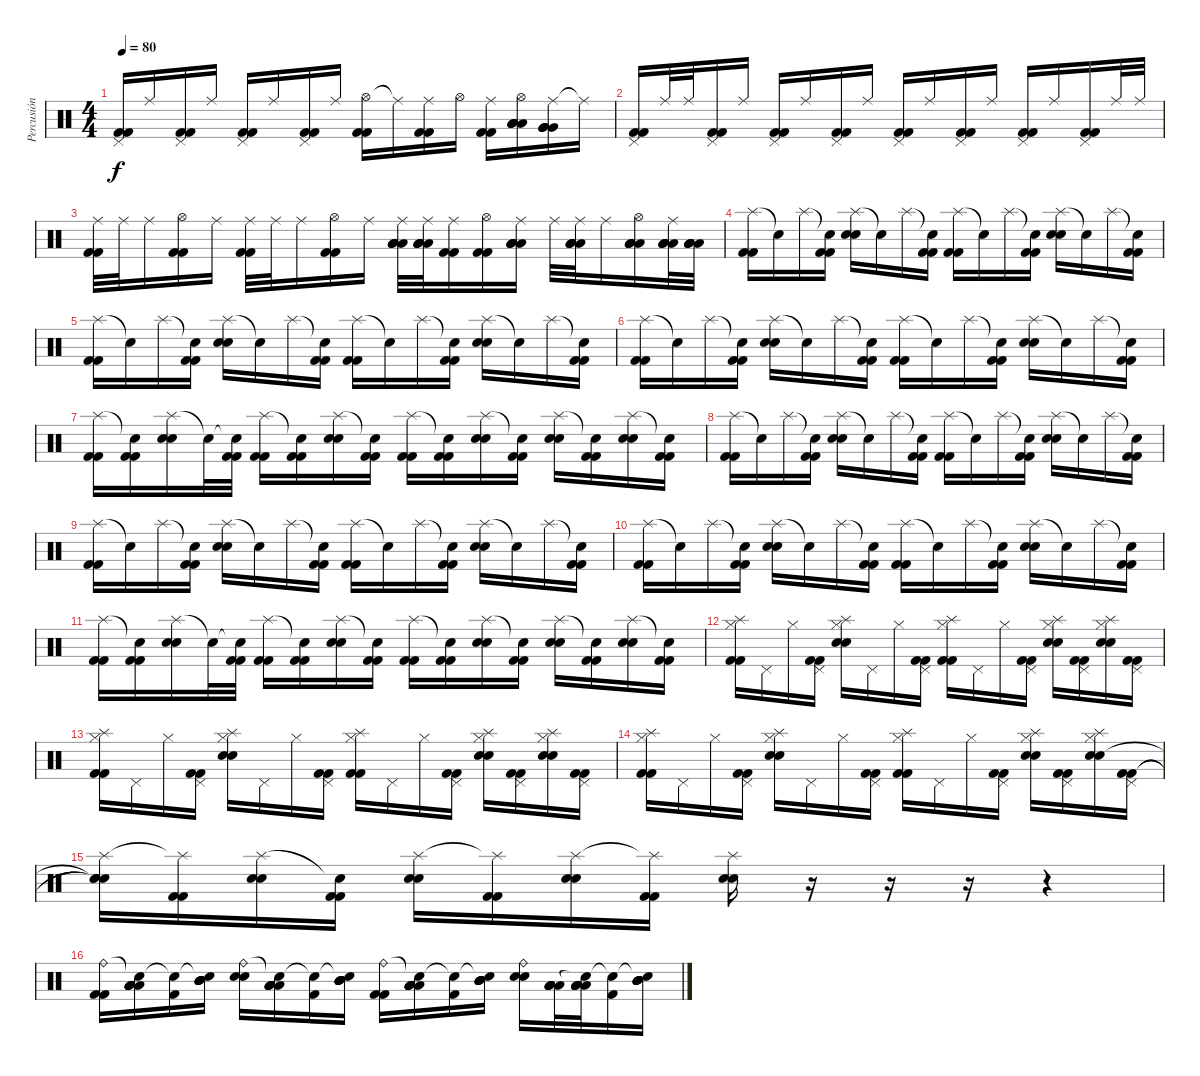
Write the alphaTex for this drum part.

\track ("Percusión" "Percusión") {instrument percussion}
\staff {score}
\articulation defaults
\ts (4 4)
\tempo 80
\clef neutral
\ks c
("Pedal Hi-Hat (hit)" "Kick (hit) 2" "Kick (hit) 2").16{dy f} "Ride (middle)".16 ("Pedal Hi-Hat (hit)" "Kick (hit) 2" "Kick (hit) 2").16 "Ride (middle)".16 ("Pedal Hi-Hat (hit)" "Kick (hit) 2" "Kick (hit) 2").16 "Ride (middle)".16 ("Pedal Hi-Hat (hit)" "Kick (hit) 2" "Kick (hit) 2").16 "Ride (middle)".16 ("Hi-Hat (open)" "Kick (hit) 2" "Kick (hit) 2").16 "Ride (middle)"{t}.16 ("Ride (middle)" "Kick (hit) 2" "Kick (hit) 2").16 "Hi-Hat (open)".16 ("Ride (middle)" "Kick (hit) 2" "Kick (hit) 2").16 ("Hi-Hat (open)" "Low Tom (hit)" "Low Tom (hit)" "Low Tom (hit)" "Low Tom (hit)").16 ("Ride (middle)" "Very Low Tom (hit)" "Very Low Tom (hit)" "Very Low Tom (hit)" "Very Low Tom (hit)").16 "Ride (middle)"{t}.16 |
("Pedal Hi-Hat (hit)" "Kick (hit) 2" "Kick (hit) 2").16 "Ride (middle)".32 "Ride (middle)".32 ("Pedal Hi-Hat (hit)" "Kick (hit) 2" "Kick (hit) 2").16 "Ride (middle)".16 ("Pedal Hi-Hat (hit)" "Kick (hit) 2" "Kick (hit) 2").16 "Ride (middle)".16 ("Pedal Hi-Hat (hit)" "Kick (hit) 2" "Kick (hit) 2").16 "Ride (middle)".16 ("Pedal Hi-Hat (hit)" "Kick (hit) 2" "Kick (hit) 2").16 "Ride (middle)".16 ("Pedal Hi-Hat (hit)" "Kick (hit) 2" "Kick (hit) 2").16 "Ride (middle)".16 ("Pedal Hi-Hat (hit)" "Kick (hit) 2" "Kick (hit) 2").16 "Ride (middle)".16 ("Pedal Hi-Hat (hit)" "Kick (hit) 2" "Kick (hit) 2").16 "Ride (middle)".32 "Ride (middle)".32 |
("Ride (middle)" "Kick (hit) 2" "Kick (hit) 2").32 "Ride (middle)".32 "Ride (middle)".16 ("Hi-Hat (open)" "Kick (hit) 2" "Kick (hit) 2").16 "Ride (middle)".16 ("Ride (middle)" "Kick (hit) 2" "Kick (hit) 2").32 "Ride (middle)".32 "Ride (middle)".16 ("Hi-Hat (open)" "Kick (hit) 2" "Kick (hit) 2").16 "Ride (middle)".16 ("Ride (middle)" "Low Tom (hit)" "Low Tom (hit)" "Low Tom (hit)" "Low Tom (hit)").32 ("Ride (middle)" "Low Tom (hit)" "Low Tom (hit)" "Low Tom (hit)" "Low Tom (hit)").32 ("Ride (middle)" "Kick (hit) 2" "Kick (hit) 2").16 ("Hi-Hat (open)" "Kick (hit) 2" "Kick (hit) 2").16 ("Ride (middle)" "Low Tom (hit)" "Low Tom (hit)" "Low Tom (hit)" "Low Tom (hit)").16 "Ride (middle)".32 ("Ride (middle)" "Low Tom (hit)" "Low Tom (hit)" "Low Tom (hit)" "Low Tom (hit)").32 "Ride (middle)".16 ("Hi-Hat (open)" "Low Tom (hit)" "Low Tom (hit)" "Low Tom (hit)" "Low Tom (hit)").16 ("Ride (middle)" "Low Tom (hit)" "Low Tom (hit)" "Low Tom (hit)" "Low Tom (hit)").32 ("Low Tom (hit)" "Low Tom (hit)" "Low Tom (hit)" "Low Tom (hit)").32 |
("Splash (hit)" "Kick (hit) 2" "Kick (hit) 2").16 "Snare (hit)"{t}.16 "Splash (hit)".16 ("Snare (hit)"{t} "Kick (hit) 2" "Kick (hit) 2").16 ("Splash (hit)" "Electric Snare (hit)" "Electric Snare (hit)").16 "Snare (hit)"{t}.16 "Splash (hit)".16 ("Snare (hit)"{t} "Kick (hit) 2" "Kick (hit) 2").16 ("Splash (hit)" "Kick (hit) 2" "Kick (hit) 2").16 "Snare (hit)"{t}.16 "Splash (hit)".16 ("Snare (hit)"{t} "Kick (hit) 2" "Kick (hit) 2").16 ("Splash (hit)" "Electric Snare (hit)" "Electric Snare (hit)").16 "Snare (hit)"{t}.16 "Splash (hit)".16 ("Snare (hit)"{t} "Kick (hit) 2" "Kick (hit) 2").16 |
("Splash (hit)" "Kick (hit) 2" "Kick (hit) 2").16 "Snare (hit)"{t}.16 "Splash (hit)".16 ("Snare (hit)"{t} "Kick (hit) 2" "Kick (hit) 2").16 ("Splash (hit)" "Electric Snare (hit)" "Electric Snare (hit)").16 "Snare (hit)"{t}.16 "Splash (hit)".16 ("Snare (hit)"{t} "Kick (hit) 2" "Kick (hit) 2").16 ("Splash (hit)" "Kick (hit) 2" "Kick (hit) 2").16 "Snare (hit)"{t}.16 "Splash (hit)".16 ("Snare (hit)"{t} "Kick (hit) 2" "Kick (hit) 2").16 ("Splash (hit)" "Electric Snare (hit)" "Electric Snare (hit)").16 "Snare (hit)"{t}.16 "Splash (hit)".16 ("Snare (hit)"{t} "Kick (hit) 2" "Kick (hit) 2").16 |
("Splash (hit)" "Kick (hit) 2" "Kick (hit) 2").16 "Snare (hit)"{t}.16 "Splash (hit)".16 ("Snare (hit)"{t} "Kick (hit) 2" "Kick (hit) 2").16 ("Splash (hit)" "Electric Snare (hit)" "Electric Snare (hit)").16 "Snare (hit)"{t}.16 "Splash (hit)".16 ("Snare (hit)"{t} "Kick (hit) 2" "Kick (hit) 2").16 ("Splash (hit)" "Kick (hit) 2" "Kick (hit) 2").16 "Snare (hit)"{t}.16 "Splash (hit)".16 ("Snare (hit)"{t} "Kick (hit) 2" "Kick (hit) 2").16 ("Splash (hit)" "Electric Snare (hit)" "Electric Snare (hit)").16 "Snare (hit)"{t}.16 "Splash (hit)".16 ("Snare (hit)"{t} "Kick (hit) 2" "Kick (hit) 2").16 |
("Splash (hit)" "Kick (hit) 2" "Kick (hit) 2").16 ("Snare (hit)"{t} "Kick (hit) 2" "Kick (hit) 2").16 ("Splash (hit)" "Electric Snare (hit)" "Electric Snare (hit)").16 "Snare (hit)"{t}.32 ("Snare (hit)"{t} "Kick (hit) 2" "Kick (hit) 2").32 ("Splash (hit)" "Kick (hit) 2" "Kick (hit) 2").16 ("Snare (hit)"{t} "Kick (hit) 2" "Kick (hit) 2").16 ("Splash (hit)" "Electric Snare (hit)" "Electric Snare (hit)").16 ("Snare (hit)"{t} "Kick (hit) 2" "Kick (hit) 2").16 ("Splash (hit)" "Kick (hit) 2" "Kick (hit) 2").16 ("Snare (hit)"{t} "Kick (hit) 2" "Kick (hit) 2").16 ("Splash (hit)" "Electric Snare (hit)" "Electric Snare (hit)").16 ("Snare (hit)"{t} "Kick (hit) 2" "Kick (hit) 2").16 ("Splash (hit)" "Electric Snare (hit)" "Electric Snare (hit)").16 ("Snare (hit)"{t} "Kick (hit) 2" "Kick (hit) 2").16 ("Splash (hit)" "Electric Snare (hit)" "Electric Snare (hit)").16 ("Snare (hit)"{t} "Kick (hit) 2" "Kick (hit) 2").16 |
("Splash (hit)" "Kick (hit) 2" "Kick (hit) 2").16 "Snare (hit)"{t}.16 "Splash (hit)".16 ("Snare (hit)"{t} "Kick (hit) 2" "Kick (hit) 2").16 ("Splash (hit)" "Electric Snare (hit)" "Electric Snare (hit)").16 "Snare (hit)"{t}.16 "Splash (hit)".16 ("Snare (hit)"{t} "Kick (hit) 2" "Kick (hit) 2").16 ("Splash (hit)" "Kick (hit) 2" "Kick (hit) 2").16 "Snare (hit)"{t}.16 "Splash (hit)".16 ("Snare (hit)"{t} "Kick (hit) 2" "Kick (hit) 2").16 ("Splash (hit)" "Electric Snare (hit)" "Electric Snare (hit)").16 "Snare (hit)"{t}.16 "Splash (hit)".16 ("Snare (hit)"{t} "Kick (hit) 2" "Kick (hit) 2").16 |
("Splash (hit)" "Kick (hit) 2" "Kick (hit) 2").16 "Snare (hit)"{t}.16 "Splash (hit)".16 ("Snare (hit)"{t} "Kick (hit) 2" "Kick (hit) 2").16 ("Splash (hit)" "Electric Snare (hit)" "Electric Snare (hit)").16 "Snare (hit)"{t}.16 "Splash (hit)".16 ("Snare (hit)"{t} "Kick (hit) 2" "Kick (hit) 2").16 ("Splash (hit)" "Kick (hit) 2" "Kick (hit) 2").16 "Snare (hit)"{t}.16 "Splash (hit)".16 ("Snare (hit)"{t} "Kick (hit) 2" "Kick (hit) 2").16 ("Splash (hit)" "Electric Snare (hit)" "Electric Snare (hit)").16 "Snare (hit)"{t}.16 "Splash (hit)".16 ("Snare (hit)"{t} "Kick (hit) 2" "Kick (hit) 2").16 |
("Splash (hit)" "Kick (hit) 2" "Kick (hit) 2").16 "Snare (hit)"{t}.16 "Splash (hit)".16 ("Snare (hit)"{t} "Kick (hit) 2" "Kick (hit) 2").16 ("Splash (hit)" "Electric Snare (hit)" "Electric Snare (hit)").16 "Snare (hit)"{t}.16 "Splash (hit)".16 ("Snare (hit)"{t} "Kick (hit) 2" "Kick (hit) 2").16 ("Splash (hit)" "Kick (hit) 2" "Kick (hit) 2").16 "Snare (hit)"{t}.16 "Splash (hit)".16 ("Snare (hit)"{t} "Kick (hit) 2" "Kick (hit) 2").16 ("Splash (hit)" "Electric Snare (hit)" "Electric Snare (hit)").16 "Snare (hit)"{t}.16 "Splash (hit)".16 ("Snare (hit)"{t} "Kick (hit) 2" "Kick (hit) 2").16 |
("Splash (hit)" "Kick (hit) 2" "Kick (hit) 2").16 ("Snare (hit)"{t} "Kick (hit) 2" "Kick (hit) 2").16 ("Splash (hit)" "Electric Snare (hit)" "Electric Snare (hit)").16 "Snare (hit)"{t}.32 ("Snare (hit)"{t} "Kick (hit) 2" "Kick (hit) 2").32 ("Splash (hit)" "Kick (hit) 2" "Kick (hit) 2").16 ("Snare (hit)"{t} "Kick (hit) 2" "Kick (hit) 2").16 ("Splash (hit)" "Electric Snare (hit)" "Electric Snare (hit)").16 ("Snare (hit)"{t} "Kick (hit) 2" "Kick (hit) 2").16 ("Splash (hit)" "Kick (hit) 2" "Kick (hit) 2").16 ("Snare (hit)"{t} "Kick (hit) 2" "Kick (hit) 2").16 ("Splash (hit)" "Electric Snare (hit)" "Electric Snare (hit)").16 ("Snare (hit)"{t} "Kick (hit) 2" "Kick (hit) 2").16 ("Splash (hit)" "Electric Snare (hit)" "Electric Snare (hit)").16 ("Snare (hit)"{t} "Kick (hit) 2" "Kick (hit) 2").16 ("Splash (hit)" "Electric Snare (hit)" "Electric Snare (hit)").16 ("Snare (hit)"{t} "Kick (hit) 2" "Kick (hit) 2").16 |
("Hi-Hat (closed)" "Splash (hit)" "Kick (hit) 2" "Kick (hit) 2").16 "Pedal Hi-Hat (hit)".16 "Hi-Hat (closed)".16 ("Pedal Hi-Hat (hit)" "Kick (hit) 2" "Kick (hit) 2").16 ("Hi-Hat (closed)" "Splash (hit)" "Electric Snare (hit)" "Electric Snare (hit)").16 "Pedal Hi-Hat (hit)".16 "Hi-Hat (closed)".16 ("Pedal Hi-Hat (hit)" "Kick (hit) 2" "Kick (hit) 2").16 ("Hi-Hat (closed)" "Splash (hit)" "Kick (hit) 2" "Kick (hit) 2").16 "Pedal Hi-Hat (hit)".16 "Hi-Hat (closed)".16 ("Pedal Hi-Hat (hit)" "Kick (hit) 2" "Kick (hit) 2").16 ("Hi-Hat (closed)" "Splash (hit)" "Electric Snare (hit)" "Electric Snare (hit)").16 ("Pedal Hi-Hat (hit)" "Kick (hit) 2" "Kick (hit) 2").16 ("Hi-Hat (closed)" "Splash (hit)" "Electric Snare (hit)" "Electric Snare (hit)").16 ("Pedal Hi-Hat (hit)" "Kick (hit) 2" "Kick (hit) 2").16 |
("Hi-Hat (closed)" "Splash (hit)" "Kick (hit) 2" "Kick (hit) 2").16 "Pedal Hi-Hat (hit)".16 "Hi-Hat (closed)".16 ("Pedal Hi-Hat (hit)" "Kick (hit) 2" "Kick (hit) 2").16 ("Hi-Hat (closed)" "Splash (hit)" "Electric Snare (hit)" "Electric Snare (hit)").16 "Pedal Hi-Hat (hit)".16 "Hi-Hat (closed)".16 ("Pedal Hi-Hat (hit)" "Kick (hit) 2" "Kick (hit) 2").16 ("Hi-Hat (closed)" "Splash (hit)" "Kick (hit) 2" "Kick (hit) 2").16 "Pedal Hi-Hat (hit)".16 "Hi-Hat (closed)".16 ("Pedal Hi-Hat (hit)" "Kick (hit) 2" "Kick (hit) 2").16 ("Hi-Hat (closed)" "Splash (hit)" "Electric Snare (hit)" "Electric Snare (hit)").16 ("Pedal Hi-Hat (hit)" "Kick (hit) 2" "Kick (hit) 2").16 ("Hi-Hat (closed)" "Splash (hit)" "Electric Snare (hit)" "Electric Snare (hit)").16 ("Pedal Hi-Hat (hit)" "Kick (hit) 2" "Kick (hit) 2").16 |
("Hi-Hat (closed)" "Splash (hit)" "Kick (hit) 2" "Kick (hit) 2").16 "Pedal Hi-Hat (hit)".16 "Hi-Hat (closed)".16 ("Pedal Hi-Hat (hit)" "Kick (hit) 2" "Kick (hit) 2").16 ("Hi-Hat (closed)" "Splash (hit)" "Electric Snare (hit)" "Electric Snare (hit)").16 "Pedal Hi-Hat (hit)".16 "Hi-Hat (closed)".16 ("Pedal Hi-Hat (hit)" "Kick (hit) 2" "Kick (hit) 2").16 ("Hi-Hat (closed)" "Splash (hit)" "Kick (hit) 2" "Kick (hit) 2").16 "Pedal Hi-Hat (hit)".16 "Hi-Hat (closed)".16 ("Pedal Hi-Hat (hit)" "Kick (hit) 2" "Kick (hit) 2").16 ("Hi-Hat (closed)" "Splash (hit)" "Electric Snare (hit)" "Electric Snare (hit)").16 ("Pedal Hi-Hat (hit)" "Kick (hit) 2" "Kick (hit) 2").16 ("Hi-Hat (closed)" "Splash (hit)" "Electric Snare (hit)" "Electric Snare (hit)").16 ("Pedal Hi-Hat (hit)" "Kick (hit) 2" "Kick (hit) 2").16 |
("Splash (hit)" "Snare (hit)"{t} "Snare (hit)"{t} "Snare (hit)"{t}).16 ("Splash (hit)"{t} "Kick (hit) 2" "Kick (hit) 2").16 ("Splash (hit)" "Electric Snare (hit)" "Electric Snare (hit)").16 ("Snare (hit)"{t} "Kick (hit) 2" "Kick (hit) 2").16 ("Splash (hit)" "Electric Snare (hit)" "Electric Snare (hit)").16 ("Splash (hit)"{t} "Kick (hit) 2" "Kick (hit) 2").16 ("Splash (hit)" "Electric Snare (hit)" "Electric Snare (hit)").16 ("Splash (hit)"{t} "Kick (hit) 2" "Kick (hit) 2").16 ("Splash (hit)" "Electric Snare (hit)" "Electric Snare (hit)").16 r.16 r.16 r.16 r.4 |
("Ride (bell)" "Kick (hit) 2" "Kick (hit) 2").16 ("Snare (hit)"{t} "Low Tom (hit)" "Low Tom (hit)" "Low Tom (hit)" "Low Tom (hit)" "Low Tom (hit)").16 ("Snare (hit)"{t} "Kick (hit) 2").16 ("Snare (hit)"{t} "Mid Tom (hit)" "Mid Tom (hit)" "Mid Tom (hit)" "Mid Tom (hit)" "Mid Tom (hit)").16 ("Ride (bell)" "Electric Snare (hit)" "Electric Snare (hit)").16 ("Snare (hit)"{t} "Low Tom (hit)" "Low Tom (hit)" "Low Tom (hit)" "Low Tom (hit)" "Low Tom (hit)").16 ("Snare (hit)"{t} "Kick (hit) 2").16 ("Snare (hit)"{t} "Mid Tom (hit)" "Mid Tom (hit)" "Mid Tom (hit)" "Mid Tom (hit)" "Mid Tom (hit)").16 ("Ride (bell)" "Kick (hit) 2" "Kick (hit) 2").16 ("Snare (hit)"{t} "Low Tom (hit)" "Low Tom (hit)" "Low Tom (hit)" "Low Tom (hit)" "Low Tom (hit)").16 ("Snare (hit)"{t} "Kick (hit) 2").16 ("Snare (hit)"{t} "Mid Tom (hit)" "Mid Tom (hit)" "Mid Tom (hit)" "Mid Tom (hit)" "Mid Tom (hit)").16 ("Ride (bell)" "Electric Snare (hit)" "Electric Snare (hit)").16 ("Low Tom (hit)" "Low Tom (hit)" "Low Tom (hit)" "Low Tom (hit)" "Low Tom (hit)").32 ("Snare (hit)"{t} "Low Tom (hit)" "Low Tom (hit)" "Low Tom (hit)" "Low Tom (hit)" "Low Tom (hit)").32 ("Snare (hit)"{t} "Kick (hit) 2").16 ("Snare (hit)"{t} "Mid Tom (hit)" "Mid Tom (hit)" "Mid Tom (hit)" "Mid Tom (hit)" "Mid Tom (hit)").16
